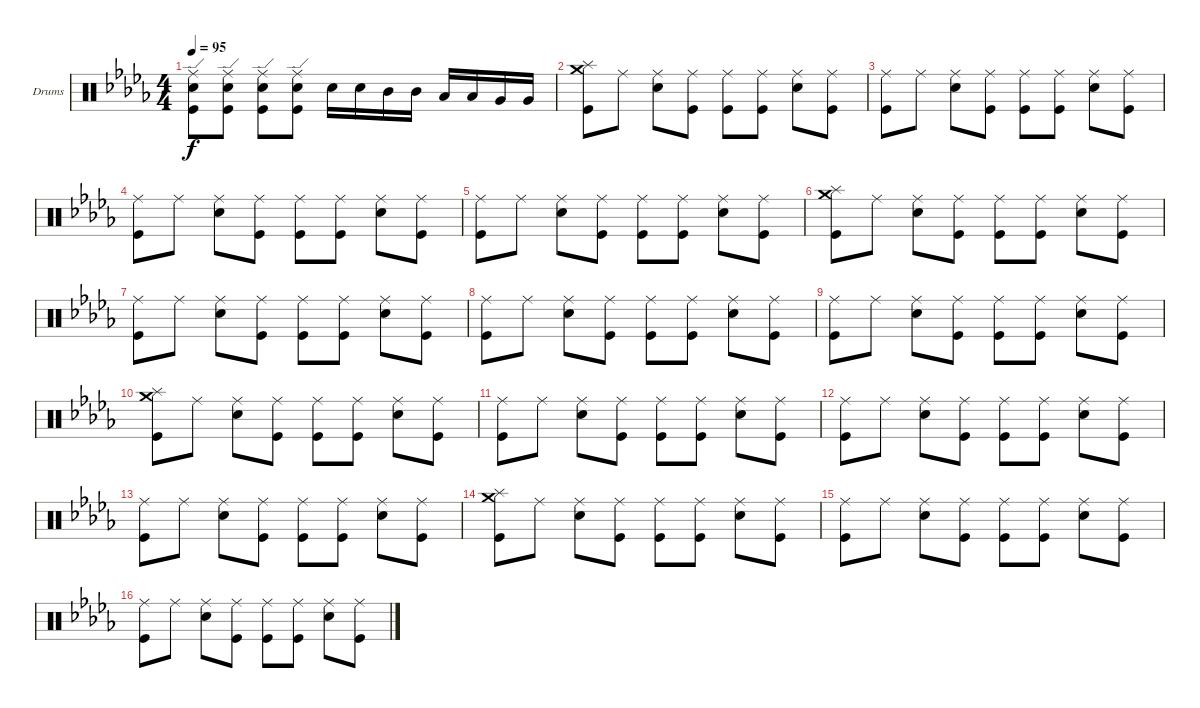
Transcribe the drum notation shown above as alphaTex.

\bracketExtendMode groupsimilarinstruments
\firstSystemTrackNameOrientation horizontal
\otherSystemsTrackNameOrientation horizontal
\track ("Drumkit" "Drums") {instrument percussion}
\staff {score}
\articulation defaults
\ts (4 4)
\tempo 95
\clef neutral
\scale
0.333333
\ks bbminor
("Kick (hit)" "Snare (hit) 2" "Ride (edge)").8{dy f} ("Kick (hit)" "Ride (edge)" "Snare (hit) 2").8 ("Kick (hit)" "Ride (edge)" "Snare (hit) 2").8 ("Kick (hit)" "Ride (edge)" "Snare (hit) 2").8 "Snare (hit) 2".16 "Snare (hit) 2".16 "Mid Tom (hit)".16 "Mid Tom (hit)".16 "Low Tom (hit)".16 "Low Tom (hit)".16 "Very Low Tom (hit)".16 "Very Low Tom (hit)".16 |
\scale
0.333333 ("Crash medium (hit)" "Kick (hit)" "Splash (hit)").8 "Ride (middle)".8 ("Ride (middle)" "Snare (hit) 2").8 ("Ride (middle)" "Kick (hit)").8 ("Ride (middle)" "Kick (hit)").8 ("Ride (middle)" "Kick (hit)").8 ("Ride (middle)" "Snare (hit) 2").8 ("Kick (hit)" "Ride (middle)").8 |
\scale
0.333333 ("Kick (hit)" "Ride (middle)").8 "Ride (middle)".8 ("Ride (middle)" "Snare (hit) 2").8 ("Ride (middle)" "Kick (hit)").8 ("Ride (middle)" "Kick (hit)").8 ("Ride (middle)" "Kick (hit)").8 ("Ride (middle)" "Snare (hit) 2").8 ("Kick (hit)" "Ride (middle)").8 |
\scale
0.333333 ("Kick (hit)" "Ride (middle)").8 "Ride (middle)".8 ("Ride (middle)" "Snare (hit) 2").8 ("Ride (middle)" "Kick (hit)").8 ("Ride (middle)" "Kick (hit)").8 ("Ride (middle)" "Kick (hit)").8 ("Ride (middle)" "Snare (hit) 2").8 ("Kick (hit)" "Ride (middle)").8 |
\scale
0.333333 ("Kick (hit)" "Ride (middle)").8 "Ride (middle)".8 ("Ride (middle)" "Snare (hit) 2").8 ("Ride (middle)" "Kick (hit)").8 ("Ride (middle)" "Kick (hit)").8 ("Ride (middle)" "Kick (hit)").8 ("Ride (middle)" "Snare (hit) 2").8 ("Kick (hit)" "Ride (middle)").8 |
\scale
0.333333 ("Crash medium (hit)" "Kick (hit)" "Splash (hit)").8 "Ride (middle)".8 ("Ride (middle)" "Snare (hit) 2").8 ("Ride (middle)" "Kick (hit)").8 ("Ride (middle)" "Kick (hit)").8 ("Ride (middle)" "Kick (hit)").8 ("Ride (middle)" "Snare (hit) 2").8 ("Kick (hit)" "Ride (middle)").8 |
\scale
0.333333 ("Kick (hit)" "Ride (middle)").8 "Ride (middle)".8 ("Ride (middle)" "Snare (hit) 2").8 ("Ride (middle)" "Kick (hit)").8 ("Ride (middle)" "Kick (hit)").8 ("Ride (middle)" "Kick (hit)").8 ("Ride (middle)" "Snare (hit) 2").8 ("Kick (hit)" "Ride (middle)").8 |
\scale
0.333333 ("Kick (hit)" "Ride (middle)").8 "Ride (middle)".8 ("Ride (middle)" "Snare (hit) 2").8 ("Ride (middle)" "Kick (hit)").8 ("Ride (middle)" "Kick (hit)").8 ("Ride (middle)" "Kick (hit)").8 ("Ride (middle)" "Snare (hit) 2").8 ("Kick (hit)" "Ride (middle)").8 |
\scale
0.333333 ("Kick (hit)" "Ride (middle)").8 "Ride (middle)".8 ("Ride (middle)" "Snare (hit) 2").8 ("Ride (middle)" "Kick (hit)").8 ("Ride (middle)" "Kick (hit)").8 ("Ride (middle)" "Kick (hit)").8 ("Ride (middle)" "Snare (hit) 2").8 ("Kick (hit)" "Ride (middle)").8 |
\scale
0.333333 ("Crash medium (hit)" "Kick (hit)" "Splash (hit)").8 "Ride (middle)".8 ("Ride (middle)" "Snare (hit) 2").8 ("Ride (middle)" "Kick (hit)").8 ("Ride (middle)" "Kick (hit)").8 ("Ride (middle)" "Kick (hit)").8 ("Ride (middle)" "Snare (hit) 2").8 ("Kick (hit)" "Ride (middle)").8 |
\scale
0.333333 ("Kick (hit)" "Ride (middle)").8 "Ride (middle)".8 ("Ride (middle)" "Snare (hit) 2").8 ("Ride (middle)" "Kick (hit)").8 ("Ride (middle)" "Kick (hit)").8 ("Ride (middle)" "Kick (hit)").8 ("Ride (middle)" "Snare (hit) 2").8 ("Kick (hit)" "Ride (middle)").8 |
\scale
0.333333 ("Kick (hit)" "Ride (middle)").8 "Ride (middle)".8 ("Ride (middle)" "Snare (hit) 2").8 ("Ride (middle)" "Kick (hit)").8 ("Ride (middle)" "Kick (hit)").8 ("Ride (middle)" "Kick (hit)").8 ("Ride (middle)" "Snare (hit) 2").8 ("Kick (hit)" "Ride (middle)").8 |
\scale
0.333333 ("Kick (hit)" "Ride (middle)").8 "Ride (middle)".8 ("Ride (middle)" "Snare (hit) 2").8 ("Ride (middle)" "Kick (hit)").8 ("Ride (middle)" "Kick (hit)").8 ("Ride (middle)" "Kick (hit)").8 ("Ride (middle)" "Snare (hit) 2").8 ("Kick (hit)" "Ride (middle)").8 |
\scale
0.333333 ("Crash medium (hit)" "Kick (hit)" "Splash (hit)").8 "Ride (middle)".8 ("Ride (middle)" "Snare (hit) 2").8 ("Ride (middle)" "Kick (hit)").8 ("Ride (middle)" "Kick (hit)").8 ("Ride (middle)" "Kick (hit)").8 ("Ride (middle)" "Snare (hit) 2").8 ("Kick (hit)" "Ride (middle)").8 |
\scale
0.333333 ("Kick (hit)" "Ride (middle)").8 "Ride (middle)".8 ("Ride (middle)" "Snare (hit) 2").8 ("Ride (middle)" "Kick (hit)").8 ("Ride (middle)" "Kick (hit)").8 ("Ride (middle)" "Kick (hit)").8 ("Ride (middle)" "Snare (hit) 2").8 ("Kick (hit)" "Ride (middle)").8 |
\scale
0.333333 ("Kick (hit)" "Ride (middle)").8 "Ride (middle)".8 ("Ride (middle)" "Snare (hit) 2").8 ("Ride (middle)" "Kick (hit)").8 ("Ride (middle)" "Kick (hit)").8 ("Ride (middle)" "Kick (hit)").8 ("Ride (middle)" "Snare (hit) 2").8 ("Kick (hit)" "Ride (middle)").8
